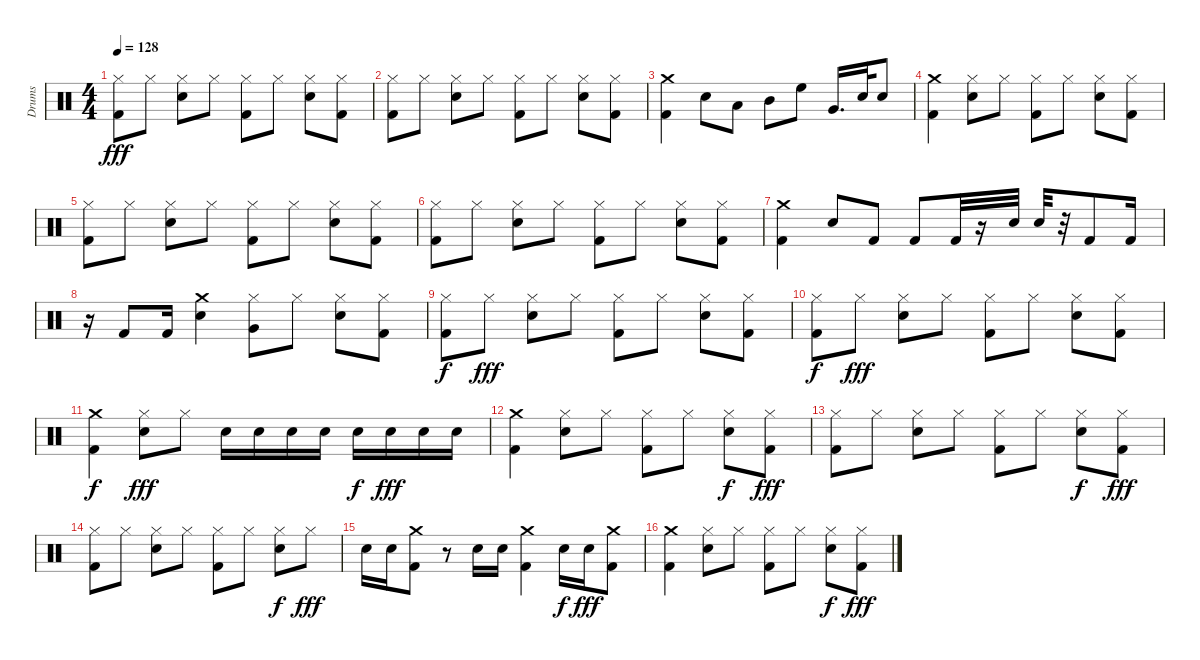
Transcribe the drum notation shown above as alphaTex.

\track ("Drums" "Drums") {instrument percussion}
\staff {score}
\articulation defaults
\ts (4 4)
\tempo 128
\clef neutral
\ks c
("Hi-Hat (closed)" "Kick (hit) 2").8{dy fff} "Hi-Hat (closed)".8 ("Snare (hit) 2" "Hi-Hat (closed)").8 "Hi-Hat (closed)".8 ("Hi-Hat (closed)" "Kick (hit) 2").8 "Hi-Hat (closed)".8 ("Snare (hit) 2" "Hi-Hat (closed)").8 ("Kick (hit) 2" "Hi-Hat (closed)").8 |
("Hi-Hat (closed)" "Kick (hit) 2").8 "Hi-Hat (closed)".8 ("Snare (hit) 2" "Hi-Hat (closed)").8 "Hi-Hat (closed)".8 ("Hi-Hat (closed)" "Kick (hit) 2").8 "Hi-Hat (closed)".8 ("Snare (hit) 2" "Hi-Hat (closed)").8 ("Kick (hit) 2" "Hi-Hat (closed)").8 |
("Kick (hit) 2" "Crash medium (hit)").4 "Snare (hit) 2".8 "Low Tom (hit)".8 "Mid Tom (hit)".8 "High Floor Tom (hit)".8 "Very Low Tom (hit)".16{d} "Snare (hit) 2".32 "Snare (hit) 2".8 |
("Kick (hit) 2" "Crash medium (hit)").4 ("Snare (hit) 2" "Hi-Hat (closed)").8 "Hi-Hat (closed)".8 ("Hi-Hat (closed)" "Kick (hit) 2").8 "Hi-Hat (closed)".8 ("Snare (hit) 2" "Hi-Hat (closed)").8 ("Kick (hit) 2" "Hi-Hat (closed)").8 |
("Hi-Hat (closed)" "Kick (hit) 2").8 "Hi-Hat (closed)".8 ("Snare (hit) 2" "Hi-Hat (closed)").8 "Hi-Hat (closed)".8 ("Hi-Hat (closed)" "Kick (hit) 2").8 "Hi-Hat (closed)".8 ("Snare (hit) 2" "Hi-Hat (closed)").8 ("Kick (hit) 2" "Hi-Hat (closed)").8 |
("Hi-Hat (closed)" "Kick (hit) 2").8 "Hi-Hat (closed)".8 ("Snare (hit) 2" "Hi-Hat (closed)").8 "Hi-Hat (closed)".8 ("Hi-Hat (closed)" "Kick (hit) 2").8 "Hi-Hat (closed)".8 ("Snare (hit) 2" "Hi-Hat (closed)").8 ("Kick (hit) 2" "Hi-Hat (closed)").8 |
("Kick (hit) 2" "Crash medium (hit)").4 "Snare (hit) 2".8 "Kick (hit) 2".8 "Kick (hit) 2".8 "Kick (hit) 2".32 r.16 "Snare (hit) 2".32 "Snare (hit) 2".32 r.32 "Kick (hit) 2".8 "Kick (hit) 2".16 |
r.16 "Kick (hit) 2".8 "Kick (hit) 2".16 ("Snare (hit) 2" "Crash medium (hit)").4 ("Very Low Tom (hit)" "Hi-Hat (closed)").8 "Hi-Hat (closed)".8 ("Snare (hit) 2" "Hi-Hat (closed)").8 ("Kick (hit) 2" "Hi-Hat (closed)").8 |
("Hi-Hat (closed)" "Kick (hit) 2").8{dy f} "Hi-Hat (closed)".8{dy fff} ("Snare (hit) 2" "Hi-Hat (closed)").8 "Hi-Hat (closed)".8 ("Hi-Hat (closed)" "Kick (hit) 2").8 "Hi-Hat (closed)".8 ("Snare (hit) 2" "Hi-Hat (closed)").8 ("Kick (hit) 2" "Hi-Hat (closed)").8 |
("Hi-Hat (closed)" "Kick (hit) 2").8{dy f} "Hi-Hat (closed)".8{dy fff} ("Snare (hit) 2" "Hi-Hat (closed)").8 "Hi-Hat (closed)".8 ("Hi-Hat (closed)" "Kick (hit) 2").8 "Hi-Hat (closed)".8 ("Snare (hit) 2" "Hi-Hat (closed)").8 ("Kick (hit) 2" "Hi-Hat (closed)").8 |
("Kick (hit) 2" "Crash medium (hit)").4{dy f} ("Snare (hit) 2" "Hi-Hat (closed)").8{dy fff} "Hi-Hat (closed)".8 "Snare (hit) 2".16 "Snare (hit) 2".16 "Snare (hit) 2".16 "Snare (hit) 2".16 "Snare (hit) 2".16{dy f} "Snare (hit) 2".16{dy fff} "Snare (hit) 2".16 "Snare (hit) 2".16 |
("Kick (hit) 2" "Crash medium (hit)").4 ("Snare (hit) 2" "Hi-Hat (closed)").8 "Hi-Hat (closed)".8 ("Kick (hit) 2" "Hi-Hat (closed)").8 "Hi-Hat (closed)".8 ("Hi-Hat (closed)" "Snare (hit) 2").8{dy f} ("Hi-Hat (closed)" "Kick (hit) 2").8{dy fff} |
("Hi-Hat (closed)" "Kick (hit) 2").8 "Hi-Hat (closed)".8 ("Snare (hit) 2" "Hi-Hat (closed)").8 "Hi-Hat (closed)".8 ("Hi-Hat (closed)" "Kick (hit) 2").8 "Hi-Hat (closed)".8 ("Hi-Hat (closed)" "Snare (hit) 2").8{dy f} ("Hi-Hat (closed)" "Kick (hit) 2").8{dy fff} |
("Hi-Hat (closed)" "Kick (hit) 2").8 "Hi-Hat (closed)".8 ("Snare (hit) 2" "Hi-Hat (closed)").8 "Hi-Hat (closed)".8 ("Hi-Hat (closed)" "Kick (hit) 2").8 "Hi-Hat (closed)".8 ("Hi-Hat (closed)" "Snare (hit) 2").8{dy f} "Hi-Hat (closed)".8{dy fff} |
"Snare (hit) 2".16 "Snare (hit) 2".16 ("Kick (hit) 2" "Crash medium (hit)").8 r.8 "Snare (hit) 2".16 "Snare (hit) 2".16 ("Kick (hit) 2" "Crash medium (hit)").4 "Snare (hit) 2".16{dy f} "Snare (hit) 2".16{dy fff} ("Kick (hit) 2" "Crash medium (hit)").8 |
("Kick (hit) 2" "Crash medium (hit)").4 ("Hi-Hat (closed)" "Snare (hit) 2").8 "Hi-Hat (closed)".8 ("Hi-Hat (closed)" "Kick (hit) 2").8 "Hi-Hat (closed)".8 ("Hi-Hat (closed)" "Snare (hit) 2").8{dy f} ("Hi-Hat (closed)" "Kick (hit) 2").8{dy fff}
